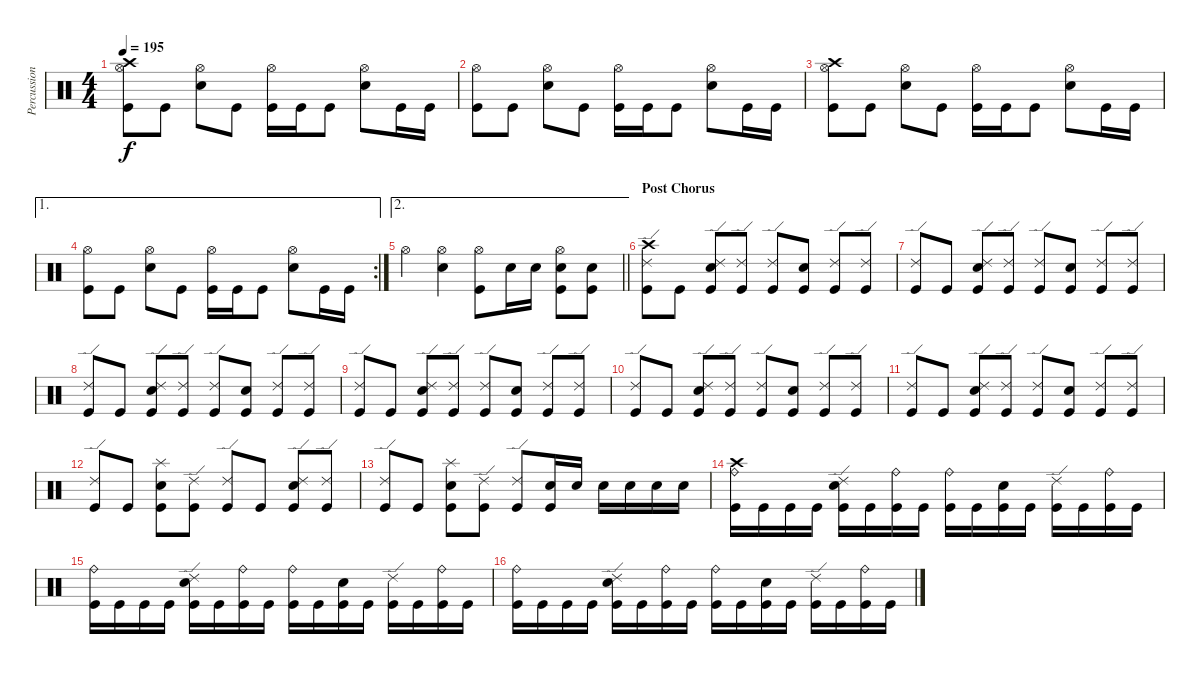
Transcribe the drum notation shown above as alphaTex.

\track ("Percussion" "Percussion") {instrument percussion}
\staff {score}
\articulation defaults
\ts (4 4)
\tempo 195
\clef neutral
\ks c
("Crash high (hit)" "Hi-Hat (open)" "Kick (hit)").8{dy f} "Kick (hit)".8 ("Hi-Hat (open)" "Electric Snare (hit)").8 "Kick (hit)".8 ("Hi-Hat (open)" "Kick (hit)").16 "Kick (hit)".16 "Kick (hit)".8 ("Hi-Hat (open)" "Electric Snare (hit)").8 "Kick (hit)".16 "Kick (hit)".16 |
("Hi-Hat (open)" "Kick (hit)").8 "Kick (hit)".8 ("Hi-Hat (open)" "Electric Snare (hit)").8 "Kick (hit)".8 ("Hi-Hat (open)" "Kick (hit)").16 "Kick (hit)".16 "Kick (hit)".8 ("Hi-Hat (open)" "Electric Snare (hit)").8 "Kick (hit)".16 "Kick (hit)".16 |
("Crash high (hit)" "Hi-Hat (open)" "Kick (hit)").8 "Kick (hit)".8 ("Hi-Hat (open)" "Electric Snare (hit)").8 "Kick (hit)".8 ("Hi-Hat (open)" "Kick (hit)").16 "Kick (hit)".16 "Kick (hit)".8 ("Hi-Hat (open)" "Electric Snare (hit)").8 "Kick (hit)".16 "Kick (hit)".16 |
\ae 1
\rc 2
("Hi-Hat (open)" "Kick (hit)").8 "Kick (hit)".8 ("Hi-Hat (open)" "Electric Snare (hit)").8 "Kick (hit)".8 ("Hi-Hat (open)" "Kick (hit)").16 "Kick (hit)".16 "Kick (hit)".8 ("Hi-Hat (open)" "Electric Snare (hit)").8 "Kick (hit)".16 "Kick (hit)".16 |
\ae 2
\barLineRight lightlight "Hi-Hat (open)".4
("Hi-Hat (open)" "Electric Snare (hit)").4 ("Hi-Hat (open)" "Kick (hit)").8 "Electric Snare (hit)".16 "Electric Snare (hit)".16 ("Hi-Hat (open)" "Electric Snare (hit)" "Kick (hit)").8 ("Electric Snare (hit)" "Kick (hit)").8 |
\section ("" "Post Chorus")
("Crash high (hit)" "Ride (edge) 2" "Kick (hit)").8 "Kick (hit)".8 ("Ride (edge) 2" "Electric Snare (hit)" "Kick (hit)").8 ("Ride (edge) 2" "Kick (hit)").8 ("Ride (edge) 2" "Kick (hit)").8 ("Electric Snare (hit)" "Kick (hit)").8 ("Ride (edge) 2" "Kick (hit)").8 ("Ride (edge) 2" "Kick (hit)").8 |
("Ride (edge) 2" "Kick (hit)").8 "Kick (hit)".8 ("Ride (edge) 2" "Electric Snare (hit)" "Kick (hit)").8 ("Ride (edge) 2" "Kick (hit)").8 ("Ride (edge) 2" "Kick (hit)").8 ("Electric Snare (hit)" "Kick (hit)").8 ("Ride (edge) 2" "Kick (hit)").8 ("Ride (edge) 2" "Kick (hit)").8 |
("Ride (edge) 2" "Kick (hit)").8 "Kick (hit)".8 ("Ride (edge) 2" "Electric Snare (hit)" "Kick (hit)").8 ("Ride (edge) 2" "Kick (hit)").8 ("Ride (edge) 2" "Kick (hit)").8 ("Electric Snare (hit)" "Kick (hit)").8 ("Ride (edge) 2" "Kick (hit)").8 ("Ride (edge) 2" "Kick (hit)").8 |
("Ride (edge) 2" "Kick (hit)").8 "Kick (hit)".8 ("Ride (edge) 2" "Electric Snare (hit)" "Kick (hit)").8 ("Ride (edge) 2" "Kick (hit)").8 ("Ride (edge) 2" "Kick (hit)").8 ("Electric Snare (hit)" "Kick (hit)").8 ("Ride (edge) 2" "Kick (hit)").8 ("Ride (edge) 2" "Kick (hit)").8 |
("Ride (edge) 2" "Kick (hit)").8 "Kick (hit)".8 ("Ride (edge) 2" "Electric Snare (hit)" "Kick (hit)").8 ("Ride (edge) 2" "Kick (hit)").8 ("Ride (edge) 2" "Kick (hit)").8 ("Electric Snare (hit)" "Kick (hit)").8 ("Ride (edge) 2" "Kick (hit)").8 ("Ride (edge) 2" "Kick (hit)").8 |
("Ride (edge) 2" "Kick (hit)").8 "Kick (hit)".8 ("Ride (edge) 2" "Electric Snare (hit)" "Kick (hit)").8 ("Ride (edge) 2" "Kick (hit)").8 ("Ride (edge) 2" "Kick (hit)").8 ("Electric Snare (hit)" "Kick (hit)").8 ("Ride (edge) 2" "Kick (hit)").8 ("Ride (edge) 2" "Kick (hit)").8 |
("Ride (edge) 2" "Kick (hit)").8 "Kick (hit)".8 ("Splash (hit)" "Electric Snare (hit)" "Kick (hit)").8 ("Ride (edge) 2" "Kick (hit)").8 ("Ride (edge) 2" "Kick (hit)").8 "Kick (hit)".8 ("Ride (edge) 2" "Electric Snare (hit)" "Kick (hit)").8 ("Ride (edge) 2" "Kick (hit)").8 |
("Ride (edge) 2" "Kick (hit)").8 "Kick (hit)".8 ("Splash (hit)" "Electric Snare (hit)" "Kick (hit)").8 ("Ride (edge) 2" "Kick (hit)").8 ("Ride (edge) 2" "Kick (hit)").8 ("Electric Snare (hit)" "Kick (hit)").16 "Electric Snare (hit)".16 "Electric Snare (hit)".16 "Electric Snare (hit)".16 "Electric Snare (hit)".16 "Electric Snare (hit)".16 |
("Crash high (hit)" "Ride (bell)" "Kick (hit)").16 "Kick (hit)".16 "Kick (hit)".16 "Kick (hit)".16 ("Ride (edge) 2" "Electric Snare (hit)" "Kick (hit)").16 "Kick (hit)".16 ("Ride (bell)" "Kick (hit)").16 "Kick (hit)".16 ("Ride (bell)" "Kick (hit)").16 "Kick (hit)".16 ("Electric Snare (hit)" "Kick (hit)").16 "Kick (hit)".16 ("Ride (edge) 2" "Kick (hit)").16 "Kick (hit)".16 ("Ride (bell)" "Kick (hit)").16 "Kick (hit)".16 |
("Ride (bell)" "Kick (hit)").16 "Kick (hit)".16 "Kick (hit)".16 "Kick (hit)".16 ("Ride (edge) 2" "Electric Snare (hit)" "Kick (hit)").16 "Kick (hit)".16 ("Ride (bell)" "Kick (hit)").16 "Kick (hit)".16 ("Ride (bell)" "Kick (hit)").16 "Kick (hit)".16 ("Electric Snare (hit)" "Kick (hit)").16 "Kick (hit)".16 ("Ride (edge) 2" "Kick (hit)").16 "Kick (hit)".16 ("Ride (bell)" "Kick (hit)").16 "Kick (hit)".16 |
("Ride (bell)" "Kick (hit)").16 "Kick (hit)".16 "Kick (hit)".16 "Kick (hit)".16 ("Ride (edge) 2" "Electric Snare (hit)" "Kick (hit)").16 "Kick (hit)".16 ("Ride (bell)" "Kick (hit)").16 "Kick (hit)".16 ("Ride (bell)" "Kick (hit)").16 "Kick (hit)".16 ("Electric Snare (hit)" "Kick (hit)").16 "Kick (hit)".16 ("Ride (edge) 2" "Kick (hit)").16 "Kick (hit)".16 ("Ride (bell)" "Kick (hit)").16 "Kick (hit)".16
